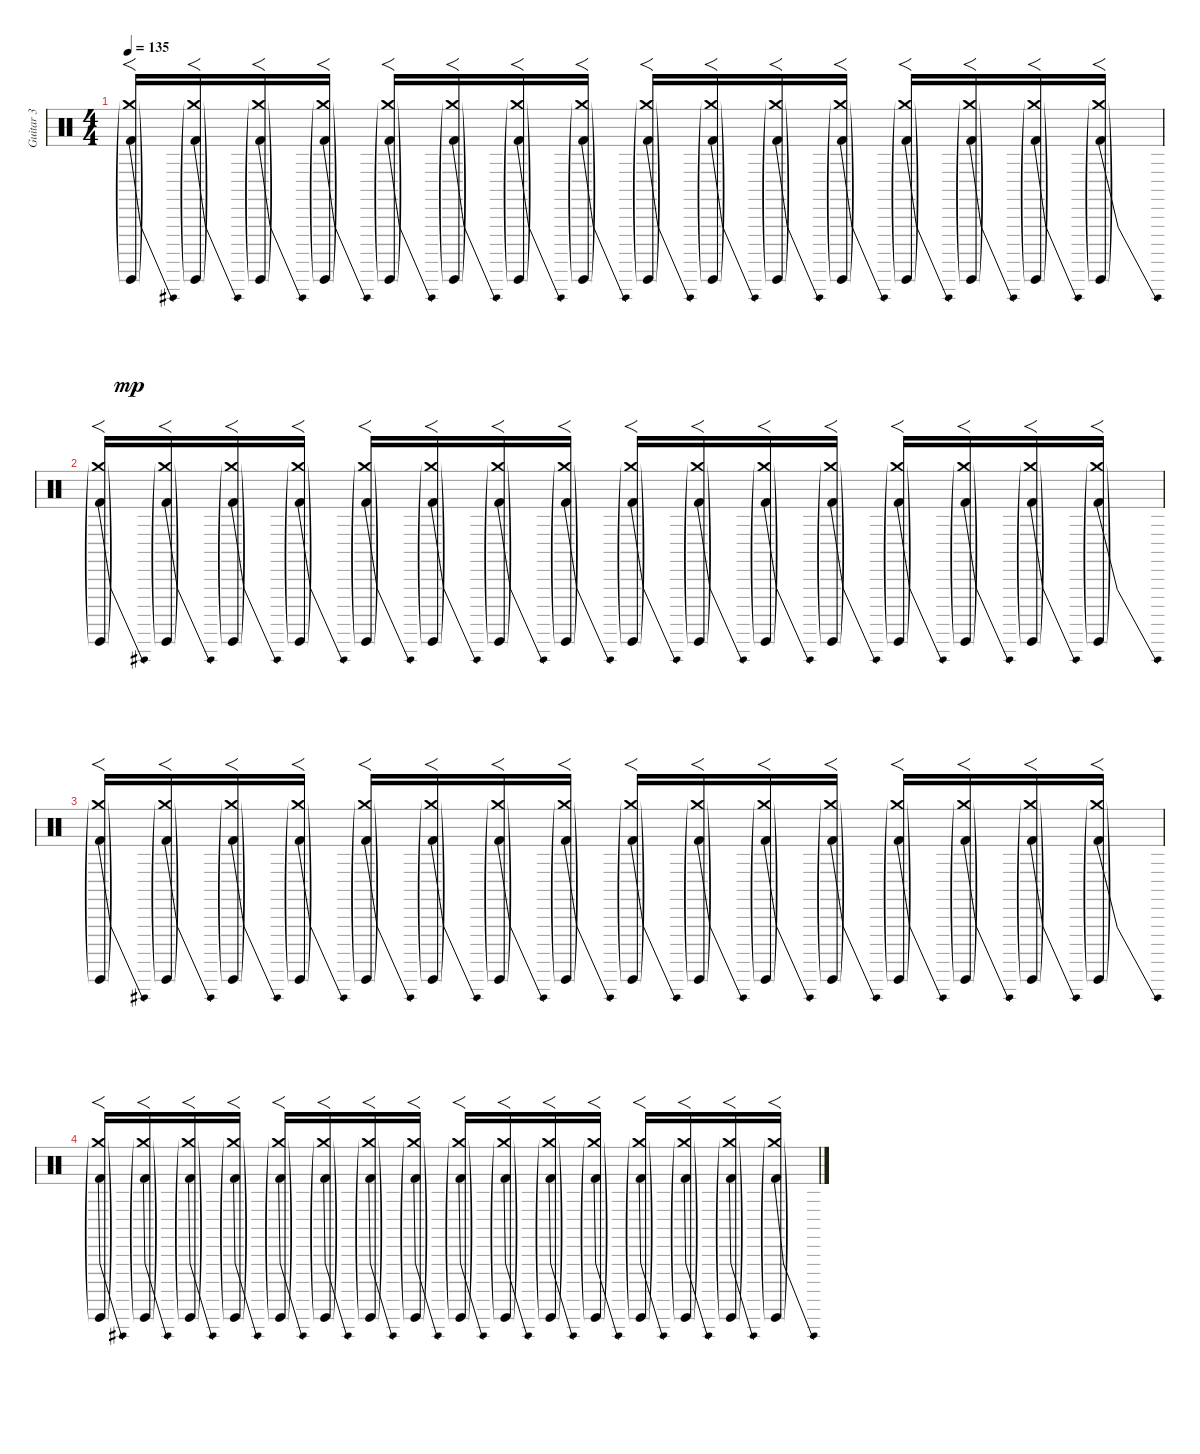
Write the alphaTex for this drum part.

\track ("Guitar 3" "Guitar 3") {instrument percussion}
\staff {score}
\articulation defaults
\ts (4 4)
\tempo 135
\clef neutral
\ks c
("Kick (hit) 2"{be (bend 0 0 60 12) g} "Crash medium (hit)"{g} "Guiro (hit)"{g}).16{f dy mp} ("Kick (hit) 2"{be (bend 0 0 60 12) g} "Crash medium (hit)"{g} "Guiro (hit)"{g}).16{f} ("Kick (hit) 2"{be (bend 0 0 60 12) g} "Crash medium (hit)"{g} "Guiro (hit)"{g}).16{f} ("Kick (hit) 2"{be (bend 0 0 60 12) g} "Crash medium (hit)"{g} "Guiro (hit)"{g}).16{f} ("Kick (hit) 2"{be (bend 0 0 60 12) g} "Crash medium (hit)"{g} "Guiro (hit)"{g}).16{f} ("Kick (hit) 2"{be (bend 0 0 60 12) g} "Crash medium (hit)"{g} "Guiro (hit)"{g}).16{f} ("Kick (hit) 2"{be (bend 0 0 60 12) g} "Crash medium (hit)"{g} "Guiro (hit)"{g}).16{f} ("Kick (hit) 2"{be (bend 0 0 60 12) g} "Crash medium (hit)"{g} "Guiro (hit)"{g}).16{f} ("Kick (hit) 2"{be (bend 0 0 60 12) g} "Crash medium (hit)"{g} "Guiro (hit)"{g}).16{f} ("Kick (hit) 2"{be (bend 0 0 60 12) g} "Crash medium (hit)"{g} "Guiro (hit)"{g}).16{f} ("Kick (hit) 2"{be (bend 0 0 60 12) g} "Crash medium (hit)"{g} "Guiro (hit)"{g}).16{f} ("Kick (hit) 2"{be (bend 0 0 60 12) g} "Crash medium (hit)"{g} "Guiro (hit)"{g}).16{f} ("Kick (hit) 2"{be (bend 0 0 60 12) g} "Crash medium (hit)"{g} "Guiro (hit)"{g}).16{f} ("Kick (hit) 2"{be (bend 0 0 60 12) g} "Crash medium (hit)"{g} "Guiro (hit)"{g}).16{f} ("Kick (hit) 2"{be (bend 0 0 60 12) g} "Crash medium (hit)"{g} "Guiro (hit)"{g}).16{f} ("Kick (hit) 2"{be (bend 0 0 60 12) g} "Crash medium (hit)"{g} "Guiro (hit)"{g}).16{f} |
("Kick (hit) 2"{be (bend 0 0 60 12) g} "Crash medium (hit)"{g} "Guiro (hit)"{g}).16{f} ("Kick (hit) 2"{be (bend 0 0 60 12) g} "Crash medium (hit)"{g} "Guiro (hit)"{g}).16{f} ("Kick (hit) 2"{be (bend 0 0 60 12) g} "Crash medium (hit)"{g} "Guiro (hit)"{g}).16{f} ("Kick (hit) 2"{be (bend 0 0 60 12) g} "Crash medium (hit)"{g} "Guiro (hit)"{g}).16{f} ("Kick (hit) 2"{be (bend 0 0 60 12) g} "Crash medium (hit)"{g} "Guiro (hit)"{g}).16{f} ("Kick (hit) 2"{be (bend 0 0 60 12) g} "Crash medium (hit)"{g} "Guiro (hit)"{g}).16{f} ("Kick (hit) 2"{be (bend 0 0 60 12) g} "Crash medium (hit)"{g} "Guiro (hit)"{g}).16{f} ("Kick (hit) 2"{be (bend 0 0 60 12) g} "Crash medium (hit)"{g} "Guiro (hit)"{g}).16{f} ("Kick (hit) 2"{be (bend 0 0 60 12) g} "Crash medium (hit)"{g} "Guiro (hit)"{g}).16{f} ("Kick (hit) 2"{be (bend 0 0 60 12) g} "Crash medium (hit)"{g} "Guiro (hit)"{g}).16{f} ("Kick (hit) 2"{be (bend 0 0 60 12) g} "Crash medium (hit)"{g} "Guiro (hit)"{g}).16{f} ("Kick (hit) 2"{be (bend 0 0 60 12) g} "Crash medium (hit)"{g} "Guiro (hit)"{g}).16{f} ("Kick (hit) 2"{be (bend 0 0 60 12) g} "Crash medium (hit)"{g} "Guiro (hit)"{g}).16{f} ("Kick (hit) 2"{be (bend 0 0 60 12) g} "Crash medium (hit)"{g} "Guiro (hit)"{g}).16{f} ("Kick (hit) 2"{be (bend 0 0 60 12) g} "Crash medium (hit)"{g} "Guiro (hit)"{g}).16{f} ("Kick (hit) 2"{be (bend 0 0 60 12) g} "Crash medium (hit)"{g} "Guiro (hit)"{g}).16{f} |
("Kick (hit) 2"{be (bend 0 0 60 12) g} "Crash medium (hit)"{g} "Guiro (hit)"{g}).16{f} ("Kick (hit) 2"{be (bend 0 0 60 12) g} "Crash medium (hit)"{g} "Guiro (hit)"{g}).16{f} ("Kick (hit) 2"{be (bend 0 0 60 12) g} "Crash medium (hit)"{g} "Guiro (hit)"{g}).16{f} ("Kick (hit) 2"{be (bend 0 0 60 12) g} "Crash medium (hit)"{g} "Guiro (hit)"{g}).16{f} ("Kick (hit) 2"{be (bend 0 0 60 12) g} "Crash medium (hit)"{g} "Guiro (hit)"{g}).16{f} ("Kick (hit) 2"{be (bend 0 0 60 12) g} "Crash medium (hit)"{g} "Guiro (hit)"{g}).16{f} ("Kick (hit) 2"{be (bend 0 0 60 12) g} "Crash medium (hit)"{g} "Guiro (hit)"{g}).16{f} ("Kick (hit) 2"{be (bend 0 0 60 12) g} "Crash medium (hit)"{g} "Guiro (hit)"{g}).16{f} ("Kick (hit) 2"{be (bend 0 0 60 12) g} "Crash medium (hit)"{g} "Guiro (hit)"{g}).16{f} ("Kick (hit) 2"{be (bend 0 0 60 12) g} "Crash medium (hit)"{g} "Guiro (hit)"{g}).16{f} ("Kick (hit) 2"{be (bend 0 0 60 12) g} "Crash medium (hit)"{g} "Guiro (hit)"{g}).16{f} ("Kick (hit) 2"{be (bend 0 0 60 12) g} "Crash medium (hit)"{g} "Guiro (hit)"{g}).16{f} ("Kick (hit) 2"{be (bend 0 0 60 12) g} "Crash medium (hit)"{g} "Guiro (hit)"{g}).16{f} ("Kick (hit) 2"{be (bend 0 0 60 12) g} "Crash medium (hit)"{g} "Guiro (hit)"{g}).16{f} ("Kick (hit) 2"{be (bend 0 0 60 12) g} "Crash medium (hit)"{g} "Guiro (hit)"{g}).16{f} ("Kick (hit) 2"{be (bend 0 0 60 12) g} "Crash medium (hit)"{g} "Guiro (hit)"{g}).16{f} |
("Kick (hit) 2"{be (bend 0 0 60 12) g} "Crash medium (hit)"{g} "Guiro (hit)"{g}).16{f} ("Kick (hit) 2"{be (bend 0 0 60 12) g} "Crash medium (hit)"{g} "Guiro (hit)"{g}).16{f} ("Kick (hit) 2"{be (bend 0 0 60 12) g} "Crash medium (hit)"{g} "Guiro (hit)"{g}).16{f} ("Kick (hit) 2"{be (bend 0 0 60 12) g} "Crash medium (hit)"{g} "Guiro (hit)"{g}).16{f} ("Kick (hit) 2"{be (bend 0 0 60 12) g} "Crash medium (hit)"{g} "Guiro (hit)"{g}).16{f} ("Kick (hit) 2"{be (bend 0 0 60 12) g} "Crash medium (hit)"{g} "Guiro (hit)"{g}).16{f} ("Kick (hit) 2"{be (bend 0 0 60 12) g} "Crash medium (hit)"{g} "Guiro (hit)"{g}).16{f} ("Kick (hit) 2"{be (bend 0 0 60 12) g} "Crash medium (hit)"{g} "Guiro (hit)"{g}).16{f} ("Kick (hit) 2"{be (bend 0 0 60 12) g} "Crash medium (hit)"{g} "Guiro (hit)"{g}).16{f} ("Kick (hit) 2"{be (bend 0 0 60 12) g} "Crash medium (hit)"{g} "Guiro (hit)"{g}).16{f} ("Kick (hit) 2"{be (bend 0 0 60 12) g} "Crash medium (hit)"{g} "Guiro (hit)"{g}).16{f} ("Kick (hit) 2"{be (bend 0 0 60 12) g} "Crash medium (hit)"{g} "Guiro (hit)"{g}).16{f} ("Kick (hit) 2"{be (bend 0 0 60 12) g} "Crash medium (hit)"{g} "Guiro (hit)"{g}).16{f} ("Kick (hit) 2"{be (bend 0 0 60 12) g} "Crash medium (hit)"{g} "Guiro (hit)"{g}).16{f} ("Kick (hit) 2"{be (bend 0 0 60 12) g} "Crash medium (hit)"{g} "Guiro (hit)"{g}).16{f} ("Kick (hit) 2"{be (bend 0 0 60 12) g} "Crash medium (hit)"{g} "Guiro (hit)"{g}).16{f}
